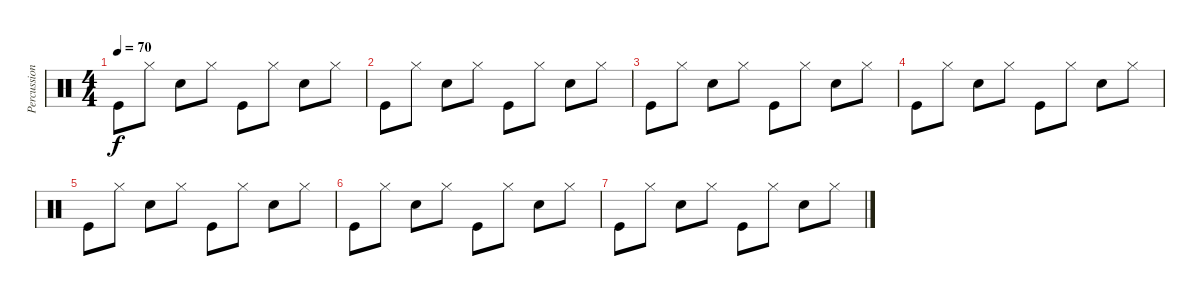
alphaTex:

\track ("Percussions" "Percussion") {instrument percussion}
\staff {score}
\articulation defaults
\ts (4 4)
\tempo 70
\clef neutral
\ks c "Kick (hit)".8{dy f} "Hi-Hat (closed)".8 "Electric Snare (hit)".8 "Hi-Hat (closed)".8 "Kick (hit)".8 "Hi-Hat (closed)".8 "Electric Snare (hit)".8 "Hi-Hat (closed)".8
|
"Kick (hit)".8 "Hi-Hat (closed)".8 "Electric Snare (hit)".8 "Hi-Hat (closed)".8 "Kick (hit)".8 "Hi-Hat (closed)".8 "Electric Snare (hit)".8 "Hi-Hat (closed)".8 |
"Kick (hit)".8 "Hi-Hat (closed)".8 "Electric Snare (hit)".8 "Hi-Hat (closed)".8 "Kick (hit)".8 "Hi-Hat (closed)".8 "Electric Snare (hit)".8 "Hi-Hat (closed)".8 |
"Kick (hit)".8 "Hi-Hat (closed)".8 "Electric Snare (hit)".8 "Hi-Hat (closed)".8 "Kick (hit)".8 "Hi-Hat (closed)".8 "Electric Snare (hit)".8 "Hi-Hat (closed)".8 |
"Kick (hit)".8 "Hi-Hat (closed)".8 "Electric Snare (hit)".8 "Hi-Hat (closed)".8 "Kick (hit)".8 "Hi-Hat (closed)".8 "Electric Snare (hit)".8 "Hi-Hat (closed)".8 |
"Kick (hit)".8 "Hi-Hat (closed)".8 "Electric Snare (hit)".8 "Hi-Hat (closed)".8 "Kick (hit)".8 "Hi-Hat (closed)".8 "Electric Snare (hit)".8 "Hi-Hat (closed)".8 |
"Kick (hit)".8 "Hi-Hat (closed)".8 "Electric Snare (hit)".8 "Hi-Hat (closed)".8 "Kick (hit)".8 "Hi-Hat (closed)".8 "Electric Snare (hit)".8 "Hi-Hat (closed)".8
